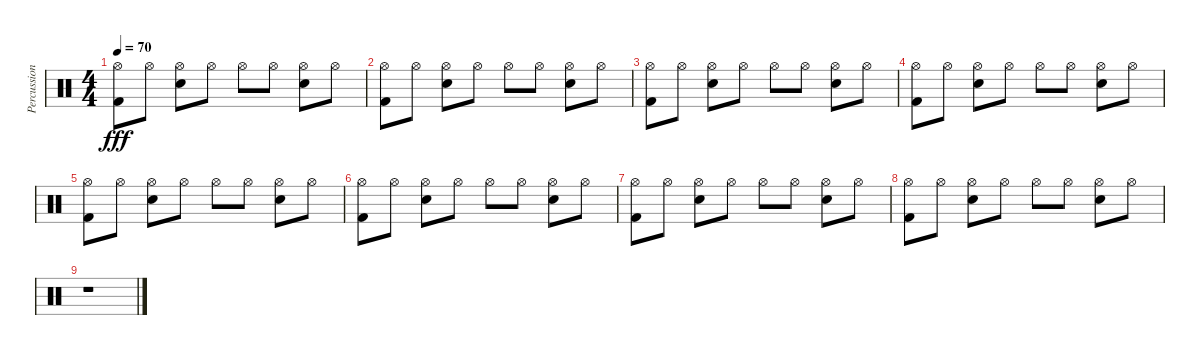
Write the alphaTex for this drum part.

\track ("Percussions" "Percussion") {instrument percussion}
\staff {score}
\articulation defaults
\ts (4 4)
\tempo 70
\clef neutral
\ks c
("Hi-Hat (open)" "Kick (hit) 2").8{dy fff} "Hi-Hat (open)".8 ("Hi-Hat (open)" "Electric Snare (hit)").8 "Hi-Hat (open)".8 "Hi-Hat (open)".8 "Hi-Hat (open)".8 ("Hi-Hat (open)" "Electric Snare (hit)").8 "Hi-Hat (open)".8 |
("Hi-Hat (open)" "Kick (hit) 2").8 "Hi-Hat (open)".8 ("Hi-Hat (open)" "Electric Snare (hit)").8 "Hi-Hat (open)".8 "Hi-Hat (open)".8 "Hi-Hat (open)".8 ("Hi-Hat (open)" "Electric Snare (hit)").8 "Hi-Hat (open)".8 |
("Hi-Hat (open)" "Kick (hit) 2").8 "Hi-Hat (open)".8 ("Hi-Hat (open)" "Electric Snare (hit)").8 "Hi-Hat (open)".8 "Hi-Hat (open)".8 "Hi-Hat (open)".8 ("Hi-Hat (open)" "Electric Snare (hit)").8 "Hi-Hat (open)".8 |
("Hi-Hat (open)" "Kick (hit) 2").8 "Hi-Hat (open)".8 ("Hi-Hat (open)" "Electric Snare (hit)").8 "Hi-Hat (open)".8 "Hi-Hat (open)".8 "Hi-Hat (open)".8 ("Hi-Hat (open)" "Electric Snare (hit)").8 "Hi-Hat (open)".8 |
("Hi-Hat (open)" "Kick (hit) 2").8 "Hi-Hat (open)".8 ("Hi-Hat (open)" "Electric Snare (hit)").8 "Hi-Hat (open)".8 "Hi-Hat (open)".8 "Hi-Hat (open)".8 ("Hi-Hat (open)" "Electric Snare (hit)").8 "Hi-Hat (open)".8 |
("Hi-Hat (open)" "Kick (hit) 2").8 "Hi-Hat (open)".8 ("Hi-Hat (open)" "Electric Snare (hit)").8 "Hi-Hat (open)".8 "Hi-Hat (open)".8 "Hi-Hat (open)".8 ("Hi-Hat (open)" "Electric Snare (hit)").8 "Hi-Hat (open)".8 |
("Hi-Hat (open)" "Kick (hit) 2").8 "Hi-Hat (open)".8 ("Hi-Hat (open)" "Electric Snare (hit)").8 "Hi-Hat (open)".8 "Hi-Hat (open)".8 "Hi-Hat (open)".8 ("Hi-Hat (open)" "Electric Snare (hit)").8 "Hi-Hat (open)".8 |
("Hi-Hat (open)" "Kick (hit) 2").8 "Hi-Hat (open)".8 ("Hi-Hat (open)" "Electric Snare (hit)").8 "Hi-Hat (open)".8 "Hi-Hat (open)".8 "Hi-Hat (open)".8 ("Hi-Hat (open)" "Electric Snare (hit)").8 "Hi-Hat (open)".8 |
r.1
